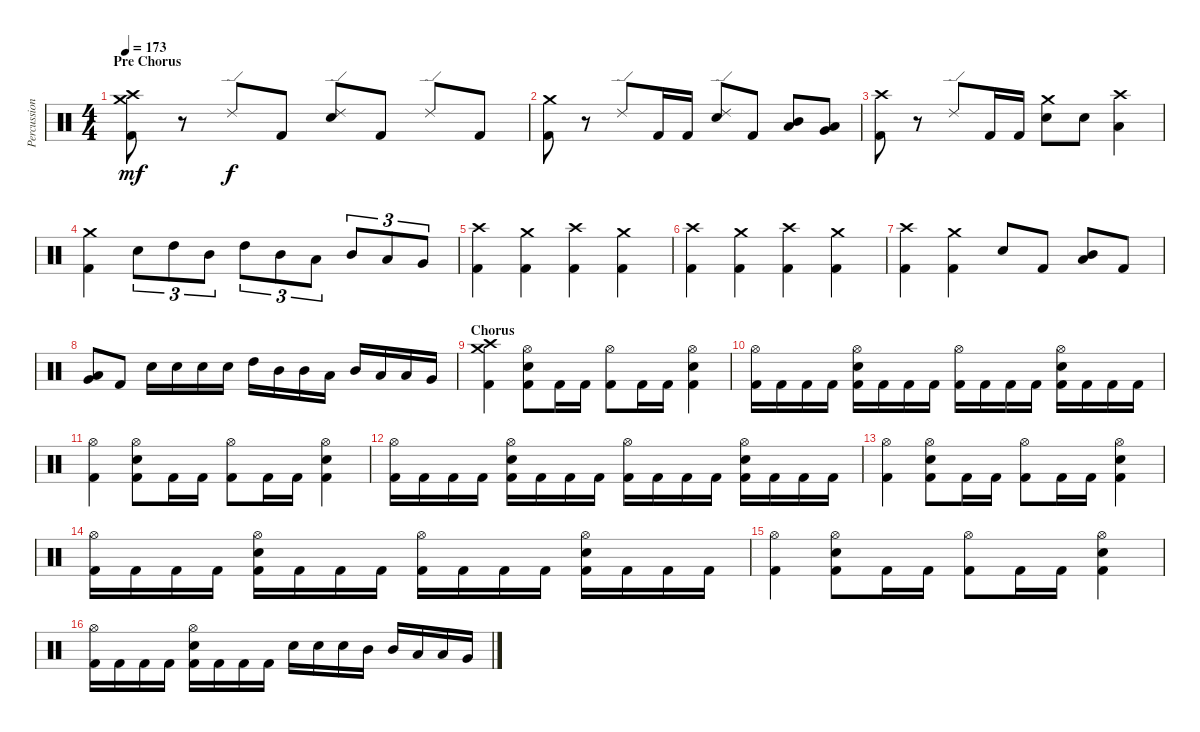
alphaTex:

\track ("Percussions" "Percussion") {instrument percussion}
\staff {score}
\articulation defaults
\ts (4 4)
\section ("" "Pre Chorus")
\tempo 173
\clef neutral
\ks c
("Crash high (hit)" "Crash medium (hit)" "Kick (hit) 2").8{dy mf} r.8 "Ride (edge) 2".8{dy f} "Kick (hit) 2".8 ("Ride (edge) 2" "Electric Snare (hit)").8 "Kick (hit) 2".8 "Ride (edge) 2".8 "Kick (hit) 2".8 |
("Crash medium (hit)" "Kick (hit) 2").8 r.8 "Ride (edge) 2".8 "Kick (hit) 2".16 "Kick (hit) 2".16 ("Ride (edge) 2" "Electric Snare (hit)").8 "Kick (hit) 2".8 ("Mid Tom (hit)" "Low Tom (hit)").8 ("Low Tom (hit)" "Very Low Tom (hit)").8 |
("Crash high (hit)" "Kick (hit) 2").8 r.8 "Ride (edge) 2".8 "Kick (hit) 2".16 "Kick (hit) 2".16 ("Crash medium (hit)" "Electric Snare (hit)").8 "Electric Snare (hit)".8 ("Crash high (hit)" "Low Tom (hit)").4 |
("Crash medium (hit)" "Kick (hit) 2").4 "Electric Snare (hit)".8{tu (3 2)} "High Tom (hit)".8{tu (3 2)} "Mid Tom (hit)".8{tu (3 2)} "High Tom (hit)".8{tu (3 2)} "Mid Tom (hit)".8{tu (3 2)} "Low Tom (hit)".8{tu (3 2)} "Mid Tom (hit)".8{tu (3 2)} "Low Tom (hit)".8{tu (3 2)} "Very Low Tom (hit)".8{tu (3 2)} |
("Crash high (hit)" "Kick (hit) 2").4 ("Crash medium (hit)" "Kick (hit) 2").4 ("Crash high (hit)" "Kick (hit) 2").4 ("Crash medium (hit)" "Kick (hit) 2").4 |
("Crash high (hit)" "Kick (hit) 2").4 ("Crash medium (hit)" "Kick (hit) 2").4 ("Crash high (hit)" "Kick (hit) 2").4 ("Crash medium (hit)" "Kick (hit) 2").4 |
("Crash high (hit)" "Kick (hit) 2").4 ("Crash medium (hit)" "Kick (hit) 2").4 "Electric Snare (hit)".8 "Kick (hit) 2".8 ("Mid Tom (hit)" "Low Tom (hit)").8 "Kick (hit) 2".8 |
("Low Tom (hit)" "Very Low Tom (hit)").8 "Kick (hit) 2".8 "Electric Snare (hit)".16 "Electric Snare (hit)".16 "Electric Snare (hit)".16 "Electric Snare (hit)".16 "High Tom (hit)".16 "Mid Tom (hit)".16 "Mid Tom (hit)".16 "Low Tom (hit)".16 "Mid Tom (hit)".16 "Low Tom (hit)".16 "Low Tom (hit)".16 "Very Low Tom (hit)".16 |
\section ("" "Chorus")
("Crash high (hit)" "Crash medium (hit)" "Kick (hit) 2").4 ("Hi-Hat (open)" "Electric Snare (hit)" "Kick (hit) 2").8 "Kick (hit) 2".16 "Kick (hit) 2".16 ("Hi-Hat (open)" "Kick (hit) 2").8 "Kick (hit) 2".16 "Kick (hit) 2".16 ("Hi-Hat (open)" "Electric Snare (hit)" "Kick (hit) 2").4 |
("Hi-Hat (open)" "Kick (hit) 2").16 "Kick (hit) 2".16 "Kick (hit) 2".16 "Kick (hit) 2".16 ("Hi-Hat (open)" "Electric Snare (hit)" "Kick (hit) 2").16 "Kick (hit) 2".16 "Kick (hit) 2".16 "Kick (hit) 2".16 ("Hi-Hat (open)" "Kick (hit) 2").16 "Kick (hit) 2".16 "Kick (hit) 2".16 "Kick (hit) 2".16 ("Hi-Hat (open)" "Electric Snare (hit)" "Kick (hit) 2").16 "Kick (hit) 2".16 "Kick (hit) 2".16 "Kick (hit) 2".16 |
("Hi-Hat (open)" "Kick (hit) 2").4 ("Hi-Hat (open)" "Electric Snare (hit)" "Kick (hit) 2").8 "Kick (hit) 2".16 "Kick (hit) 2".16 ("Hi-Hat (open)" "Kick (hit) 2").8 "Kick (hit) 2".16 "Kick (hit) 2".16 ("Hi-Hat (open)" "Electric Snare (hit)" "Kick (hit) 2").4 |
("Hi-Hat (open)" "Kick (hit) 2").16 "Kick (hit) 2".16 "Kick (hit) 2".16 "Kick (hit) 2".16 ("Hi-Hat (open)" "Electric Snare (hit)" "Kick (hit) 2").16 "Kick (hit) 2".16 "Kick (hit) 2".16 "Kick (hit) 2".16 ("Hi-Hat (open)" "Kick (hit) 2").16 "Kick (hit) 2".16 "Kick (hit) 2".16 "Kick (hit) 2".16 ("Hi-Hat (open)" "Electric Snare (hit)" "Kick (hit) 2").16 "Kick (hit) 2".16 "Kick (hit) 2".16 "Kick (hit) 2".16 |
("Hi-Hat (open)" "Kick (hit) 2").4 ("Hi-Hat (open)" "Electric Snare (hit)" "Kick (hit) 2").8 "Kick (hit) 2".16 "Kick (hit) 2".16 ("Hi-Hat (open)" "Kick (hit) 2").8 "Kick (hit) 2".16 "Kick (hit) 2".16 ("Hi-Hat (open)" "Electric Snare (hit)" "Kick (hit) 2").4 |
("Hi-Hat (open)" "Kick (hit) 2").16 "Kick (hit) 2".16 "Kick (hit) 2".16 "Kick (hit) 2".16 ("Hi-Hat (open)" "Electric Snare (hit)" "Kick (hit) 2").16 "Kick (hit) 2".16 "Kick (hit) 2".16 "Kick (hit) 2".16 ("Hi-Hat (open)" "Kick (hit) 2").16 "Kick (hit) 2".16 "Kick (hit) 2".16 "Kick (hit) 2".16 ("Hi-Hat (open)" "Electric Snare (hit)" "Kick (hit) 2").16 "Kick (hit) 2".16 "Kick (hit) 2".16 "Kick (hit) 2".16 |
("Hi-Hat (open)" "Kick (hit) 2").4 ("Hi-Hat (open)" "Electric Snare (hit)" "Kick (hit) 2").8 "Kick (hit) 2".16 "Kick (hit) 2".16 ("Hi-Hat (open)" "Kick (hit) 2").8 "Kick (hit) 2".16 "Kick (hit) 2".16 ("Hi-Hat (open)" "Electric Snare (hit)" "Kick (hit) 2").4 |
("Hi-Hat (open)" "Kick (hit) 2").16 "Kick (hit) 2".16 "Kick (hit) 2".16 "Kick (hit) 2".16 ("Hi-Hat (open)" "Electric Snare (hit)" "Kick (hit) 2").16 "Kick (hit) 2".16 "Kick (hit) 2".16 "Kick (hit) 2".16 "Electric Snare (hit)".16 "Electric Snare (hit)".16 "Electric Snare (hit)".16 "Mid Tom (hit)".16 "Mid Tom (hit)".16 "Low Tom (hit)".16 "Low Tom (hit)".16 "Very Low Tom (hit)".16
